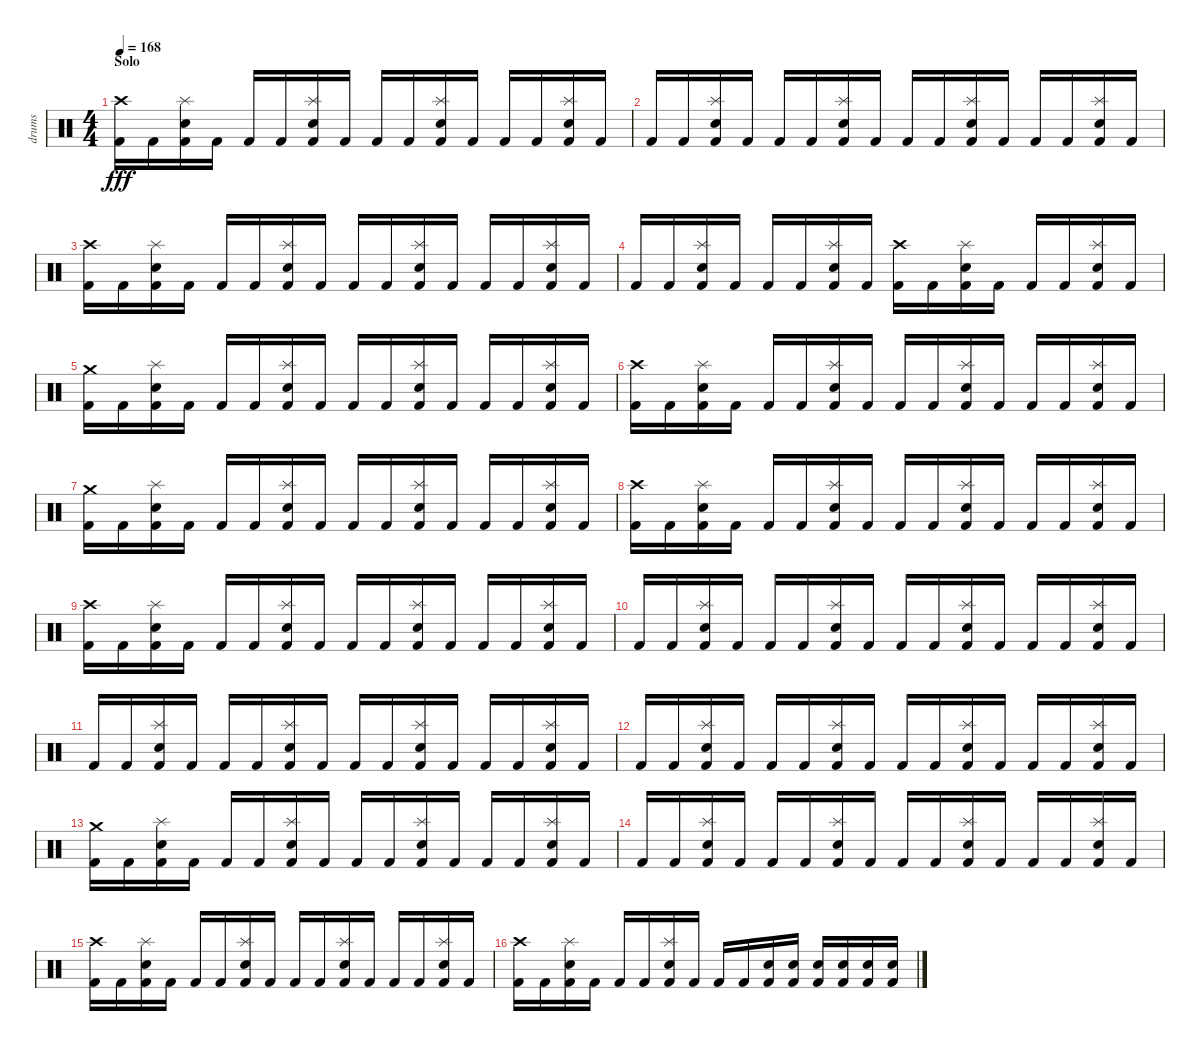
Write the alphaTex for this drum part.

\track ("drums" "drums") {instrument percussion}
\staff {score}
\articulation defaults
\ts (4 4)
\section ("" "Solo")
\tempo 168
\clef neutral
\ks c
("Crash high (hit)" "Kick (hit) 2").16{dy fff} "Kick (hit) 2".16 ("Splash (hit)" "Snare (hit) 2" "Kick (hit) 2").16 "Kick (hit) 2".16 "Kick (hit) 2".16 "Kick (hit) 2".16 ("Splash (hit)" "Snare (hit) 2" "Kick (hit) 2").16 "Kick (hit) 2".16 "Kick (hit) 2".16 "Kick (hit) 2".16 ("Splash (hit)" "Snare (hit) 2" "Kick (hit) 2").16 "Kick (hit) 2".16 "Kick (hit) 2".16 "Kick (hit) 2".16 ("Splash (hit)" "Snare (hit) 2" "Kick (hit) 2").16 "Kick (hit) 2".16 |
"Kick (hit) 2".16 "Kick (hit) 2".16 ("Splash (hit)" "Snare (hit) 2" "Kick (hit) 2").16 "Kick (hit) 2".16 "Kick (hit) 2".16 "Kick (hit) 2".16 ("Splash (hit)" "Snare (hit) 2" "Kick (hit) 2").16 "Kick (hit) 2".16 "Kick (hit) 2".16 "Kick (hit) 2".16 ("Splash (hit)" "Snare (hit) 2" "Kick (hit) 2").16 "Kick (hit) 2".16 "Kick (hit) 2".16 "Kick (hit) 2".16 ("Splash (hit)" "Snare (hit) 2" "Kick (hit) 2").16 "Kick (hit) 2".16 |
("Crash high (hit)" "Kick (hit) 2").16 "Kick (hit) 2".16 ("Splash (hit)" "Snare (hit) 2" "Kick (hit) 2").16 "Kick (hit) 2".16 "Kick (hit) 2".16 "Kick (hit) 2".16 ("Splash (hit)" "Snare (hit) 2" "Kick (hit) 2").16 "Kick (hit) 2".16 "Kick (hit) 2".16 "Kick (hit) 2".16 ("Splash (hit)" "Snare (hit) 2" "Kick (hit) 2").16 "Kick (hit) 2".16 "Kick (hit) 2".16 "Kick (hit) 2".16 ("Splash (hit)" "Snare (hit) 2" "Kick (hit) 2").16 "Kick (hit) 2".16 |
"Kick (hit) 2".16 "Kick (hit) 2".16 ("Splash (hit)" "Snare (hit) 2" "Kick (hit) 2").16 "Kick (hit) 2".16 "Kick (hit) 2".16 "Kick (hit) 2".16 ("Splash (hit)" "Snare (hit) 2" "Kick (hit) 2").16 "Kick (hit) 2".16 ("Crash high (hit)" "Kick (hit) 2").16 "Kick (hit) 2".16 ("Splash (hit)" "Snare (hit) 2" "Kick (hit) 2").16 "Kick (hit) 2".16 "Kick (hit) 2".16 "Kick (hit) 2".16 ("Splash (hit)" "Snare (hit) 2" "Kick (hit) 2").16 "Kick (hit) 2".16 |
("Crash medium (hit)" "Kick (hit) 2").16 "Kick (hit) 2".16 ("Splash (hit)" "Snare (hit) 2" "Kick (hit) 2").16 "Kick (hit) 2".16 "Kick (hit) 2".16 "Kick (hit) 2".16 ("Splash (hit)" "Snare (hit) 2" "Kick (hit) 2").16 "Kick (hit) 2".16 "Kick (hit) 2".16 "Kick (hit) 2".16 ("Splash (hit)" "Snare (hit) 2" "Kick (hit) 2").16 "Kick (hit) 2".16 "Kick (hit) 2".16 "Kick (hit) 2".16 ("Splash (hit)" "Snare (hit) 2" "Kick (hit) 2").16 "Kick (hit) 2".16 |
("Crash high (hit)" "Kick (hit) 2").16 "Kick (hit) 2".16 ("Splash (hit)" "Snare (hit) 2" "Kick (hit) 2").16 "Kick (hit) 2".16 "Kick (hit) 2".16 "Kick (hit) 2".16 ("Splash (hit)" "Snare (hit) 2" "Kick (hit) 2").16 "Kick (hit) 2".16 "Kick (hit) 2".16 "Kick (hit) 2".16 ("Splash (hit)" "Snare (hit) 2" "Kick (hit) 2").16 "Kick (hit) 2".16 "Kick (hit) 2".16 "Kick (hit) 2".16 ("Splash (hit)" "Snare (hit) 2" "Kick (hit) 2").16 "Kick (hit) 2".16 |
("Crash medium (hit)" "Kick (hit) 2").16 "Kick (hit) 2".16 ("Splash (hit)" "Snare (hit) 2" "Kick (hit) 2").16 "Kick (hit) 2".16 "Kick (hit) 2".16 "Kick (hit) 2".16 ("Splash (hit)" "Snare (hit) 2" "Kick (hit) 2").16 "Kick (hit) 2".16 "Kick (hit) 2".16 "Kick (hit) 2".16 ("Splash (hit)" "Snare (hit) 2" "Kick (hit) 2").16 "Kick (hit) 2".16 "Kick (hit) 2".16 "Kick (hit) 2".16 ("Splash (hit)" "Snare (hit) 2" "Kick (hit) 2").16 "Kick (hit) 2".16 |
("Crash high (hit)" "Kick (hit) 2").16 "Kick (hit) 2".16 ("Splash (hit)" "Snare (hit) 2" "Kick (hit) 2").16 "Kick (hit) 2".16 "Kick (hit) 2".16 "Kick (hit) 2".16 ("Splash (hit)" "Snare (hit) 2" "Kick (hit) 2").16 "Kick (hit) 2".16 "Kick (hit) 2".16 "Kick (hit) 2".16 ("Splash (hit)" "Snare (hit) 2" "Kick (hit) 2").16 "Kick (hit) 2".16 "Kick (hit) 2".16 "Kick (hit) 2".16 ("Splash (hit)" "Snare (hit) 2" "Kick (hit) 2").16 "Kick (hit) 2".16 |
("Crash high (hit)" "Kick (hit) 2").16 "Kick (hit) 2".16 ("Splash (hit)" "Snare (hit) 2" "Kick (hit) 2").16 "Kick (hit) 2".16 "Kick (hit) 2".16 "Kick (hit) 2".16 ("Splash (hit)" "Snare (hit) 2" "Kick (hit) 2").16 "Kick (hit) 2".16 "Kick (hit) 2".16 "Kick (hit) 2".16 ("Splash (hit)" "Snare (hit) 2" "Kick (hit) 2").16 "Kick (hit) 2".16 "Kick (hit) 2".16 "Kick (hit) 2".16 ("Splash (hit)" "Snare (hit) 2" "Kick (hit) 2").16 "Kick (hit) 2".16 |
"Kick (hit) 2".16 "Kick (hit) 2".16 ("Splash (hit)" "Snare (hit) 2" "Kick (hit) 2").16 "Kick (hit) 2".16 "Kick (hit) 2".16 "Kick (hit) 2".16 ("Splash (hit)" "Snare (hit) 2" "Kick (hit) 2").16 "Kick (hit) 2".16 "Kick (hit) 2".16 "Kick (hit) 2".16 ("Splash (hit)" "Snare (hit) 2" "Kick (hit) 2").16 "Kick (hit) 2".16 "Kick (hit) 2".16 "Kick (hit) 2".16 ("Splash (hit)" "Snare (hit) 2" "Kick (hit) 2").16 "Kick (hit) 2".16 |
"Kick (hit) 2".16 "Kick (hit) 2".16 ("Splash (hit)" "Snare (hit) 2" "Kick (hit) 2").16 "Kick (hit) 2".16 "Kick (hit) 2".16 "Kick (hit) 2".16 ("Splash (hit)" "Snare (hit) 2" "Kick (hit) 2").16 "Kick (hit) 2".16 "Kick (hit) 2".16 "Kick (hit) 2".16 ("Splash (hit)" "Snare (hit) 2" "Kick (hit) 2").16 "Kick (hit) 2".16 "Kick (hit) 2".16 "Kick (hit) 2".16 ("Splash (hit)" "Snare (hit) 2" "Kick (hit) 2").16 "Kick (hit) 2".16 |
"Kick (hit) 2".16 "Kick (hit) 2".16 ("Splash (hit)" "Snare (hit) 2" "Kick (hit) 2").16 "Kick (hit) 2".16 "Kick (hit) 2".16 "Kick (hit) 2".16 ("Splash (hit)" "Snare (hit) 2" "Kick (hit) 2").16 "Kick (hit) 2".16 "Kick (hit) 2".16 "Kick (hit) 2".16 ("Splash (hit)" "Snare (hit) 2" "Kick (hit) 2").16 "Kick (hit) 2".16 "Kick (hit) 2".16 "Kick (hit) 2".16 ("Splash (hit)" "Snare (hit) 2" "Kick (hit) 2").16 "Kick (hit) 2".16 |
("Crash medium (hit)" "Kick (hit) 2").16 "Kick (hit) 2".16 ("Splash (hit)" "Snare (hit) 2" "Kick (hit) 2").16 "Kick (hit) 2".16 "Kick (hit) 2".16 "Kick (hit) 2".16 ("Splash (hit)" "Snare (hit) 2" "Kick (hit) 2").16 "Kick (hit) 2".16 "Kick (hit) 2".16 "Kick (hit) 2".16 ("Splash (hit)" "Snare (hit) 2" "Kick (hit) 2").16 "Kick (hit) 2".16 "Kick (hit) 2".16 "Kick (hit) 2".16 ("Splash (hit)" "Snare (hit) 2" "Kick (hit) 2").16 "Kick (hit) 2".16 |
"Kick (hit) 2".16 "Kick (hit) 2".16 ("Splash (hit)" "Snare (hit) 2" "Kick (hit) 2").16 "Kick (hit) 2".16 "Kick (hit) 2".16 "Kick (hit) 2".16 ("Splash (hit)" "Snare (hit) 2" "Kick (hit) 2").16 "Kick (hit) 2".16 "Kick (hit) 2".16 "Kick (hit) 2".16 ("Splash (hit)" "Snare (hit) 2" "Kick (hit) 2").16 "Kick (hit) 2".16 "Kick (hit) 2".16 "Kick (hit) 2".16 ("Splash (hit)" "Snare (hit) 2" "Kick (hit) 2").16 "Kick (hit) 2".16 |
("Crash high (hit)" "Kick (hit) 2").16 "Kick (hit) 2".16 ("Splash (hit)" "Snare (hit) 2" "Kick (hit) 2").16 "Kick (hit) 2".16 "Kick (hit) 2".16 "Kick (hit) 2".16 ("Splash (hit)" "Snare (hit) 2" "Kick (hit) 2").16 "Kick (hit) 2".16 "Kick (hit) 2".16 "Kick (hit) 2".16 ("Splash (hit)" "Snare (hit) 2" "Kick (hit) 2").16 "Kick (hit) 2".16 "Kick (hit) 2".16 "Kick (hit) 2".16 ("Splash (hit)" "Snare (hit) 2" "Kick (hit) 2").16 "Kick (hit) 2".16 |
("Crash high (hit)" "Kick (hit) 2").16 "Kick (hit) 2".16 ("Splash (hit)" "Snare (hit) 2" "Kick (hit) 2").16 "Kick (hit) 2".16 "Kick (hit) 2".16 "Kick (hit) 2".16 ("Splash (hit)" "Snare (hit) 2" "Kick (hit) 2").16 "Kick (hit) 2".16 "Kick (hit) 2".16 "Kick (hit) 2".16 ("Snare (hit) 2" "Kick (hit) 2").16 ("Snare (hit) 2" "Kick (hit) 2").16 ("Snare (hit) 2" "Kick (hit) 2").16 ("Snare (hit) 2" "Kick (hit) 2").16 ("Snare (hit) 2" "Kick (hit) 2").16 ("Snare (hit) 2" "Kick (hit) 2").16
